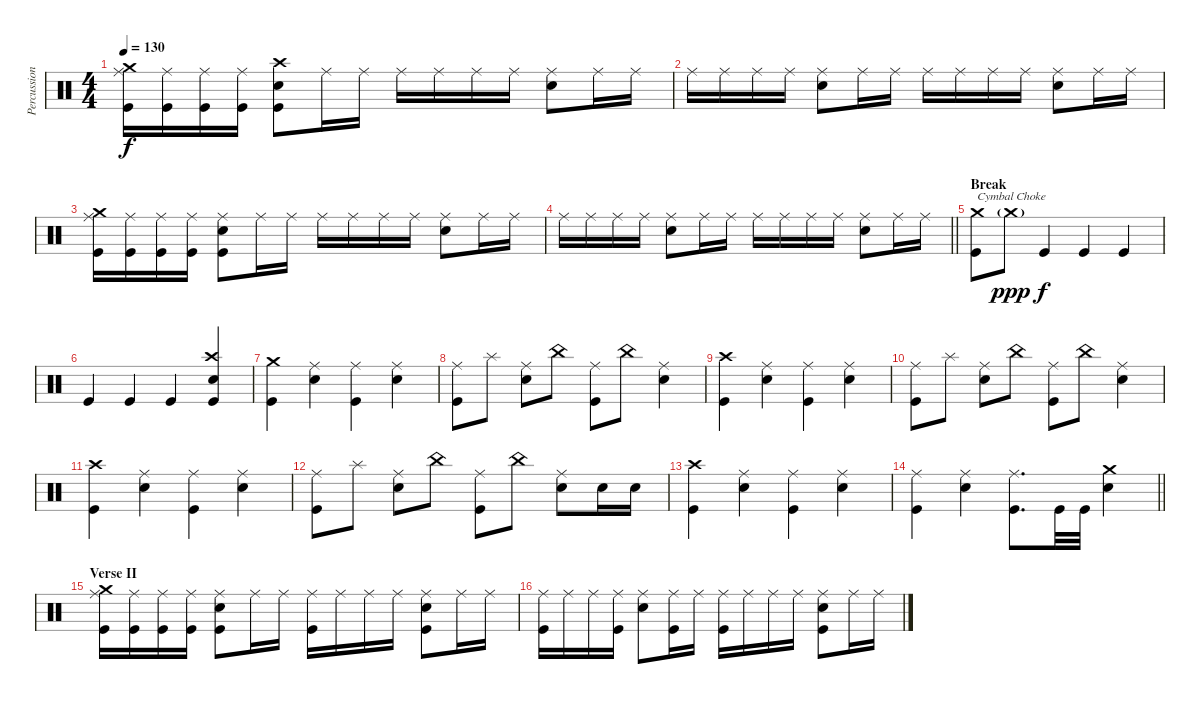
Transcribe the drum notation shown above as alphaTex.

\track ("Percussion" "Percussion") {instrument percussion}
\staff {score}
\articulation defaults
\ts (4 4)
\tempo 130
\clef neutral
\ks c
("Crash medium (hit)" "Ride (middle)" "Kick (hit)").16{dy f} ("Ride (middle)" "Kick (hit)").16 ("Ride (middle)" "Kick (hit)").16 ("Ride (middle)" "Kick (hit)").16 ("Crash high (hit)" "Electric Snare (hit)" "Kick (hit)").8 "Ride (middle)".16 "Ride (middle)".16 "Ride (middle)".16 "Ride (middle)".16 "Ride (middle)".16 "Ride (middle)".16 ("Ride (middle)" "Electric Snare (hit)").8 "Ride (middle)".16 "Ride (middle)".16 |
"Ride (middle)".16 "Ride (middle)".16 "Ride (middle)".16 "Ride (middle)".16 ("Ride (middle)" "Electric Snare (hit)").8 "Ride (middle)".16 "Ride (middle)".16 "Ride (middle)".16 "Ride (middle)".16 "Ride (middle)".16 "Ride (middle)".16 ("Ride (middle)" "Electric Snare (hit)").8 "Ride (middle)".16 "Ride (middle)".16 |
("Crash medium (hit)" "Ride (middle)" "Kick (hit)").16 ("Ride (middle)" "Kick (hit)").16 ("Ride (middle)" "Kick (hit)").16 ("Ride (middle)" "Kick (hit)").16 ("Ride (middle)" "Electric Snare (hit)" "Kick (hit)").8 "Ride (middle)".16 "Ride (middle)".16 "Ride (middle)".16 "Ride (middle)".16 "Ride (middle)".16 "Ride (middle)".16 ("Ride (middle)" "Electric Snare (hit)").8 "Ride (middle)".16 "Ride (middle)".16 |
\barLineRight lightlight "Ride (middle)".16 "Ride (middle)".16 "Ride (middle)".16 "Ride (middle)".16
("Ride (middle)" "Electric Snare (hit)").8 "Ride (middle)".16 "Ride (middle)".16 "Ride (middle)".16 "Ride (middle)".16 "Ride (middle)".16 "Ride (middle)".16 ("Ride (middle)" "Electric Snare (hit)").8 "Ride (middle)".16 "Ride (middle)".16 |
\section ("" "Break")
("Crash medium (hit)" "Kick (hit)").8{txt "Cymbal Choke"} "Crash medium (hit)"{g}.8{dy ppp} "Kick (hit)".4{dy f} "Kick (hit)".4 "Kick (hit)".4 |
"Kick (hit)".4 "Kick (hit)".4 "Kick (hit)".4 ("Crash high (hit)" "Electric Snare (hit)" "Kick (hit)").4 |
("Crash medium (hit)" "Kick (hit)").4 ("Ride (middle)" "Electric Snare (hit)").4 ("Ride (middle)" "Kick (hit)").4 ("Ride (middle)" "Electric Snare (hit)").4 |
("Ride (middle)" "Kick (hit)").8 "Splash (hit)".8 ("Ride (middle)" "Electric Snare (hit)").8 "China (hit)".8 ("Ride (middle)" "Kick (hit)").8 "China (hit)".8 ("Ride (middle)" "Electric Snare (hit)").4 |
("Crash high (hit)" "Kick (hit)").4 ("Ride (middle)" "Electric Snare (hit)").4 ("Ride (middle)" "Kick (hit)").4 ("Ride (middle)" "Electric Snare (hit)").4 |
("Ride (middle)" "Kick (hit)").8 "Splash (hit)".8 ("Ride (middle)" "Electric Snare (hit)").8 "China (hit)".8 ("Ride (middle)" "Kick (hit)").8 "China (hit)".8 ("Ride (middle)" "Electric Snare (hit)").4 |
("Crash high (hit)" "Kick (hit)").4 ("Ride (middle)" "Electric Snare (hit)").4 ("Ride (middle)" "Kick (hit)").4 ("Ride (middle)" "Electric Snare (hit)").4 |
("Ride (middle)" "Kick (hit)").8 "Splash (hit)".8 ("Ride (middle)" "Electric Snare (hit)").8 "China (hit)".8 ("Ride (middle)" "Kick (hit)").8 "China (hit)".8 ("Ride (middle)" "Electric Snare (hit)").8 "Electric Snare (hit)".16 "Electric Snare (hit)".16 |
("Crash high (hit)" "Kick (hit)").4 ("Ride (middle)" "Electric Snare (hit)").4 ("Ride (middle)" "Kick (hit)").4 ("Ride (middle)" "Electric Snare (hit)").4 |
\barLineRight lightlight
("Ride (middle)" "Kick (hit)").4 ("Ride (middle)" "Electric Snare (hit)").4 ("Ride (middle)" "Kick (hit)").8{d} "Kick (hit)".32 "Kick (hit)".32 ("Crash medium (hit)" "Electric Snare (hit)").4 |
\section ("" "Verse II")
("Crash medium (hit)" "Ride (middle)" "Kick (hit)").16 ("Ride (middle)" "Kick (hit)").16 ("Ride (middle)" "Kick (hit)").16 ("Ride (middle)" "Kick (hit)").16 ("Ride (middle)" "Electric Snare (hit)" "Kick (hit)").8 "Ride (middle)".16 "Ride (middle)".16 ("Ride (middle)" "Kick (hit)").16 "Ride (middle)".16 "Ride (middle)".16 "Ride (middle)".16 ("Ride (middle)" "Electric Snare (hit)" "Kick (hit)").8 "Ride (middle)".16 "Ride (middle)".16 |
("Ride (middle)" "Kick (hit)").16 "Ride (middle)".16 "Ride (middle)".16 ("Ride (middle)" "Kick (hit)").16 ("Ride (middle)" "Electric Snare (hit)").8 ("Ride (middle)" "Kick (hit)").16 "Ride (middle)".16 ("Ride (middle)" "Kick (hit)").16 "Ride (middle)".16 "Ride (middle)".16 "Ride (middle)".16 ("Ride (middle)" "Electric Snare (hit)" "Kick (hit)").8 "Ride (middle)".16 "Ride (middle)".16
